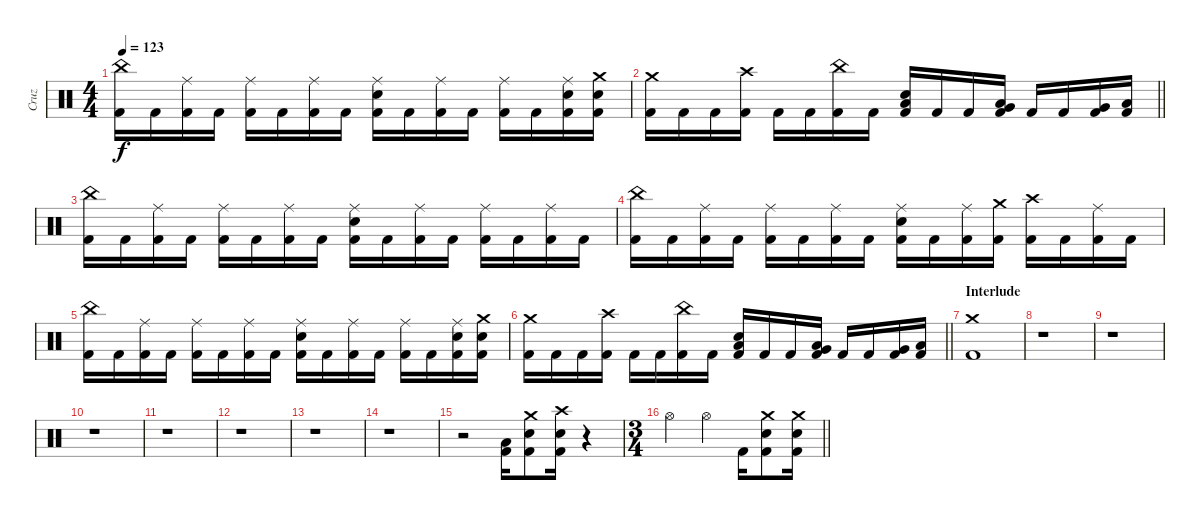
\track ("Cruz" "Cruz") {instrument percussion}
\staff {score}
\articulation defaults
\ts (4 4)
\tempo 123
\clef neutral
\ks c
("China (hit)" "Kick (hit) 2").16{dy f} "Kick (hit) 2".16 ("Ride (middle)" "Kick (hit) 2").16 "Kick (hit) 2".16 ("Ride (middle)" "Kick (hit) 2").16 "Kick (hit) 2".16 ("Ride (middle)" "Kick (hit) 2").16 "Kick (hit) 2".16 ("Ride (middle)" "Snare (hit) 2" "Kick (hit) 2").16 "Kick (hit) 2".16 ("Ride (middle)" "Kick (hit) 2").16 "Kick (hit) 2".16 ("Ride (middle)" "Kick (hit) 2").16 "Kick (hit) 2".16 ("Ride (middle)" "Snare (hit) 2" "Kick (hit) 2").16 ("Crash medium (hit)" "Snare (hit) 2" "Kick (hit) 2").16 |
\barLineRight lightlight
("Crash medium (hit)" "Kick (hit) 2").16 "Kick (hit) 2".16 "Kick (hit) 2".16 ("Crash high (hit)" "Kick (hit) 2").16 "Kick (hit) 2".16 "Kick (hit) 2".16 ("China (hit)" "Kick (hit) 2").16 "Kick (hit) 2".16 ("Low Tom (hit)" "Snare (hit) 2" "Kick (hit) 2").16 "Kick (hit) 2".16 "Kick (hit) 2".16 ("Low Tom (hit)" "Very Low Tom (hit)" "Kick (hit) 2").16 "Kick (hit) 2".16 "Kick (hit) 2".16 ("Very Low Tom (hit)" "Kick (hit) 2").16 ("Low Floor Tom (hit)" "Kick (hit) 2").16 |
("China (hit)" "Kick (hit) 2").16 "Kick (hit) 2".16 ("Ride (middle)" "Kick (hit) 2").16 "Kick (hit) 2".16 ("Ride (middle)" "Kick (hit) 2").16 "Kick (hit) 2".16 ("Ride (middle)" "Kick (hit) 2").16 "Kick (hit) 2".16 ("Ride (middle)" "Snare (hit) 2" "Kick (hit) 2").16 "Kick (hit) 2".16 ("Ride (middle)" "Kick (hit) 2").16 "Kick (hit) 2".16 ("Ride (middle)" "Kick (hit) 2").16 "Kick (hit) 2".16 ("Ride (middle)" "Kick (hit) 2").16 "Kick (hit) 2".16 |
("China (hit)" "Kick (hit) 2").16 "Kick (hit) 2".16 ("Ride (middle)" "Kick (hit) 2").16 "Kick (hit) 2".16 ("Ride (middle)" "Kick (hit) 2").16 "Kick (hit) 2".16 ("Ride (middle)" "Kick (hit) 2").16 "Kick (hit) 2".16 ("Ride (middle)" "Snare (hit) 2" "Kick (hit) 2").16 "Kick (hit) 2".16 ("Ride (middle)" "Kick (hit) 2").16 ("Crash medium (hit)" "Kick (hit) 2").16 ("Crash high (hit)" "Kick (hit) 2").16 "Kick (hit) 2".16 ("Ride (middle)" "Kick (hit) 2").16 "Kick (hit) 2".16 |
("China (hit)" "Kick (hit) 2").16 "Kick (hit) 2".16 ("Ride (middle)" "Kick (hit) 2").16 "Kick (hit) 2".16 ("Ride (middle)" "Kick (hit) 2").16 "Kick (hit) 2".16 ("Ride (middle)" "Kick (hit) 2").16 "Kick (hit) 2".16 ("Ride (middle)" "Snare (hit) 2" "Kick (hit) 2").16 "Kick (hit) 2".16 ("Ride (middle)" "Kick (hit) 2").16 "Kick (hit) 2".16 ("Ride (middle)" "Kick (hit) 2").16 "Kick (hit) 2".16 ("Ride (middle)" "Snare (hit) 2" "Kick (hit) 2").16 ("Crash medium (hit)" "Snare (hit) 2" "Kick (hit) 2").16 |
\barLineRight lightlight
("Crash medium (hit)" "Kick (hit) 2").16 "Kick (hit) 2".16 "Kick (hit) 2".16 ("Crash high (hit)" "Kick (hit) 2").16 "Kick (hit) 2".16 "Kick (hit) 2".16 ("China (hit)" "Kick (hit) 2").16 "Kick (hit) 2".16 ("Low Tom (hit)" "Snare (hit) 2" "Kick (hit) 2").16 "Kick (hit) 2".16 "Kick (hit) 2".16 ("Low Tom (hit)" "Very Low Tom (hit)" "Kick (hit) 2").16 "Kick (hit) 2".16 "Kick (hit) 2".16 ("Very Low Tom (hit)" "Kick (hit) 2").16 ("Low Floor Tom (hit)" "Kick (hit) 2").16 |
\section ("" "Interlude")
("Crash medium (hit)" "Kick (hit) 2").1 |
r.1 |
r.1 |
r.1 |
r.1 |
r.1 |
r.1 |
r.1 |
r.2 ("Low Floor Tom (hit)" "Kick (hit) 2").16 ("Crash medium (hit)" "Snare (hit) 2" "Kick (hit) 2").8 ("Crash high (hit)" "Snare (hit) 2" "Kick (hit) 2").16 r.4 |
\ts (3 4)
\barLineRight lightlight "Hi-Hat (open)".4 "Hi-Hat (open)".4 "Kick (hit) 2".16
("Crash medium (hit)" "Snare (hit) 2" "Kick (hit) 2").8 ("Crash medium (hit)" "Snare (hit) 2" "Kick (hit) 2").16
